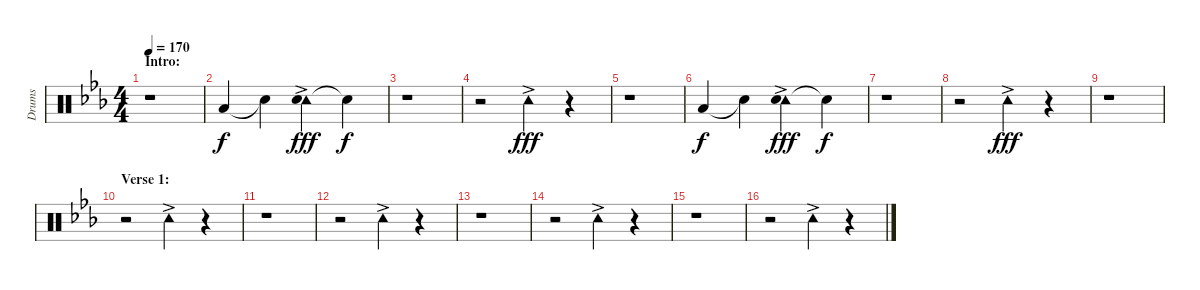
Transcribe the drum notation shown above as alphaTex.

\track ("Drums" "Drums") {instrument percussion}
\staff {score}
\articulation defaults
\ts (4 4)
\section ("" "Intro:")
\tempo 170
\clef neutral
\ks cminor
r.1{dy f volume 13 balance 8} |
"Low Floor Tom (hit)".4 "Snare (hit)"{t}.4 ("Tambourine (hit)"{ac} "Snare (hit)").4{dy fff} "Snare (hit)"{t}.4{dy f} |
r.1 |
r.2 "Tambourine (hit)"{ac}.4{dy fff} r.4 |
r.1 |
"Low Floor Tom (hit)".4{dy f} "Snare (hit)"{t}.4 ("Tambourine (hit)"{ac} "Snare (hit)").4{dy fff} "Snare (hit)"{t}.4{dy f} |
r.1 |
r.2 "Tambourine (hit)"{ac}.4{dy fff} r.4 |
r.1 |
\section ("" "Verse 1:")
r.2 "Tambourine (hit)"{ac}.4 r.4 |
r.1 |
r.2 "Tambourine (hit)"{ac}.4 r.4 |
r.1 |
r.2 "Tambourine (hit)"{ac}.4 r.4 |
r.1 |
r.2 "Tambourine (hit)"{ac}.4 r.4
